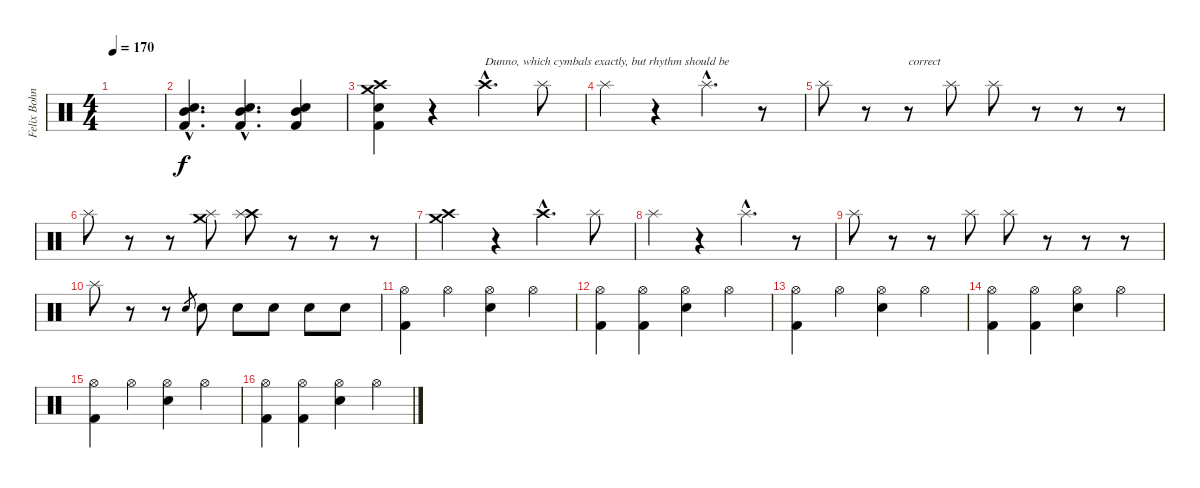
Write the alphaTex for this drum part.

\track ("Felix Bohnke" "Felix Bohn") {instrument percussion}
\staff {score}
\articulation defaults
\ts (4 4)
\tempo 170
\clef neutral
\ks c
|
("Snare (hit) 2"{hac} "Mid Tom (hit)"{hac} "Kick (hit) 2"{hac}).4{d} ("Snare (hit) 2"{hac} "Mid Tom (hit)"{hac} "Kick (hit) 2"{hac}).4{d} ("Snare (hit) 2" "Mid Tom (hit)" "Kick (hit) 2").4 |
("Crash high (hit)" "Crash medium (hit)" "Snare (hit) 2" "Kick (hit) 2").4 r.4 "Crash high (hit)"{hac}.4{d txt "Dunno, which cymbals exactly, but rhythm should be"} "Splash (hit)".8 |
"Splash (hit)".4 r.4 "Splash (hit)"{hac}.4{d} r.8 |
"Splash (hit)".8 r.8 r.8{txt "correct"} "Splash (hit)".8 "Splash (hit)".8 r.8 r.8 r.8 |
"Splash (hit)".8 r.8 r.8 ("Crash medium (hit)" "Splash (hit)").8 ("Crash high (hit)" "Splash (hit)").8 r.8 r.8 r.8 |
("Crash high (hit)" "Crash medium (hit)").4 r.4 "Crash high (hit)"{hac}.4{d} "Splash (hit)".8 |
"Splash (hit)".4 r.4 "Splash (hit)"{hac}.4{d} r.8 |
"Splash (hit)".8 r.8 r.8 "Splash (hit)".8 "Splash (hit)".8 r.8 r.8 r.8 |
"Splash (hit)".8 r.8 r.8 "Snare (hit) 2".8{gr} "Snare (hit) 2".8 "Snare (hit) 2".8 "Snare (hit) 2".8 "Snare (hit) 2".8 "Snare (hit) 2".8 |
("Hi-Hat (open)" "Kick (hit) 2").4 "Hi-Hat (open)".4 ("Hi-Hat (open)" "Snare (hit) 2").4 "Hi-Hat (open)".4 |
("Hi-Hat (open)" "Kick (hit) 2").4 ("Hi-Hat (open)" "Kick (hit) 2").4 ("Hi-Hat (open)" "Snare (hit) 2").4 "Hi-Hat (open)".4 |
("Hi-Hat (open)" "Kick (hit) 2").4 "Hi-Hat (open)".4 ("Hi-Hat (open)" "Snare (hit) 2").4 "Hi-Hat (open)".4 |
("Hi-Hat (open)" "Kick (hit) 2").4 ("Hi-Hat (open)" "Kick (hit) 2").4 ("Hi-Hat (open)" "Snare (hit) 2").4 "Hi-Hat (open)".4 |
("Hi-Hat (open)" "Kick (hit) 2").4 "Hi-Hat (open)".4 ("Hi-Hat (open)" "Snare (hit) 2").4 "Hi-Hat (open)".4 |
("Hi-Hat (open)" "Kick (hit) 2").4 ("Hi-Hat (open)" "Kick (hit) 2").4 ("Hi-Hat (open)" "Snare (hit) 2").4 "Hi-Hat (open)".4
